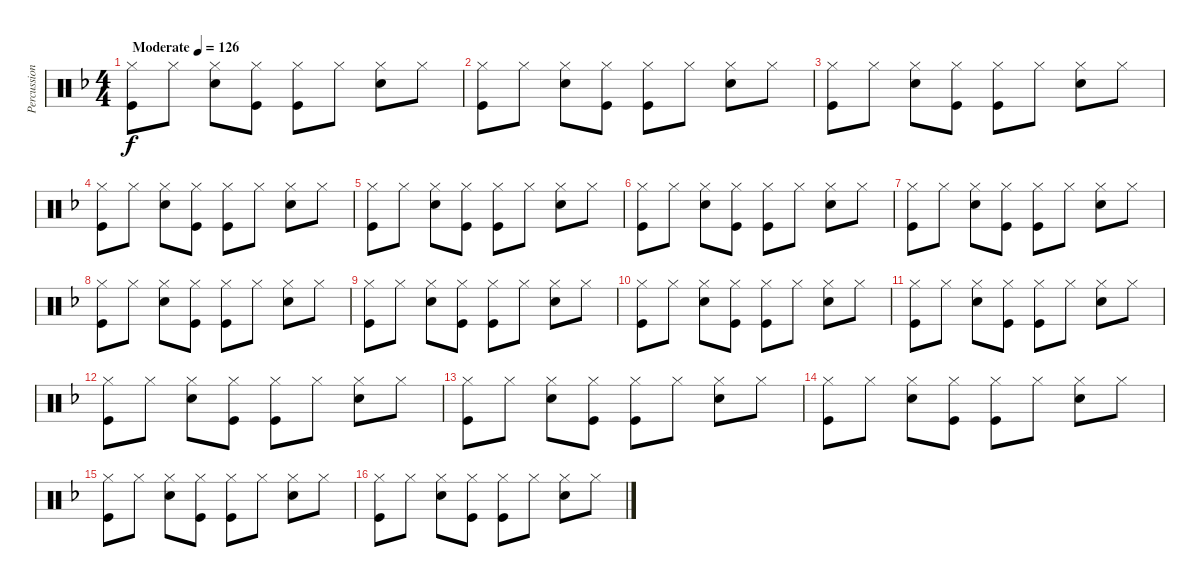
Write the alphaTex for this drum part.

\track ("Percussion" "Percussion") {instrument percussion}
\staff {score}
\articulation defaults
\ts (4 4)
\tempo (126 "Moderate")
\clef neutral
\ks dminor
("Kick (hit)" "Hi-Hat (closed)").8{dy f} "Hi-Hat (closed)".8 ("Hi-Hat (closed)" "Snare (hit) 2").8 ("Hi-Hat (closed)" "Kick (hit)").8 ("Hi-Hat (closed)" "Kick (hit)").8 "Hi-Hat (closed)".8 ("Hi-Hat (closed)" "Snare (hit) 2").8 "Hi-Hat (closed)".8 |
("Kick (hit)" "Hi-Hat (closed)").8 "Hi-Hat (closed)".8 ("Hi-Hat (closed)" "Snare (hit) 2").8 ("Hi-Hat (closed)" "Kick (hit)").8 ("Hi-Hat (closed)" "Kick (hit)").8 "Hi-Hat (closed)".8 ("Hi-Hat (closed)" "Snare (hit) 2").8 "Hi-Hat (closed)".8 |
("Kick (hit)" "Hi-Hat (closed)").8 "Hi-Hat (closed)".8 ("Hi-Hat (closed)" "Snare (hit) 2").8 ("Hi-Hat (closed)" "Kick (hit)").8 ("Hi-Hat (closed)" "Kick (hit)").8 "Hi-Hat (closed)".8 ("Hi-Hat (closed)" "Snare (hit) 2").8 "Hi-Hat (closed)".8 |
("Kick (hit)" "Hi-Hat (closed)").8 "Hi-Hat (closed)".8 ("Hi-Hat (closed)" "Snare (hit) 2").8 ("Hi-Hat (closed)" "Kick (hit)").8 ("Hi-Hat (closed)" "Kick (hit)").8 "Hi-Hat (closed)".8 ("Hi-Hat (closed)" "Snare (hit) 2").8 "Hi-Hat (closed)".8 |
("Kick (hit)" "Hi-Hat (closed)").8 "Hi-Hat (closed)".8 ("Hi-Hat (closed)" "Snare (hit) 2").8 ("Hi-Hat (closed)" "Kick (hit)").8 ("Hi-Hat (closed)" "Kick (hit)").8 "Hi-Hat (closed)".8 ("Hi-Hat (closed)" "Snare (hit) 2").8 "Hi-Hat (closed)".8 |
("Kick (hit)" "Hi-Hat (closed)").8 "Hi-Hat (closed)".8 ("Hi-Hat (closed)" "Snare (hit) 2").8 ("Hi-Hat (closed)" "Kick (hit)").8 ("Hi-Hat (closed)" "Kick (hit)").8 "Hi-Hat (closed)".8 ("Hi-Hat (closed)" "Snare (hit) 2").8 "Hi-Hat (closed)".8 |
("Kick (hit)" "Hi-Hat (closed)").8 "Hi-Hat (closed)".8 ("Hi-Hat (closed)" "Snare (hit) 2").8 ("Hi-Hat (closed)" "Kick (hit)").8 ("Hi-Hat (closed)" "Kick (hit)").8 "Hi-Hat (closed)".8 ("Hi-Hat (closed)" "Snare (hit) 2").8 "Hi-Hat (closed)".8 |
("Kick (hit)" "Hi-Hat (closed)").8 "Hi-Hat (closed)".8 ("Hi-Hat (closed)" "Snare (hit) 2").8 ("Hi-Hat (closed)" "Kick (hit)").8 ("Hi-Hat (closed)" "Kick (hit)").8 "Hi-Hat (closed)".8 ("Hi-Hat (closed)" "Snare (hit) 2").8 "Hi-Hat (closed)".8 |
("Kick (hit)" "Hi-Hat (closed)").8 "Hi-Hat (closed)".8 ("Hi-Hat (closed)" "Snare (hit) 2").8 ("Hi-Hat (closed)" "Kick (hit)").8 ("Hi-Hat (closed)" "Kick (hit)").8 "Hi-Hat (closed)".8 ("Hi-Hat (closed)" "Snare (hit) 2").8 "Hi-Hat (closed)".8 |
("Kick (hit)" "Hi-Hat (closed)").8 "Hi-Hat (closed)".8 ("Hi-Hat (closed)" "Snare (hit) 2").8 ("Hi-Hat (closed)" "Kick (hit)").8 ("Hi-Hat (closed)" "Kick (hit)").8 "Hi-Hat (closed)".8 ("Hi-Hat (closed)" "Snare (hit) 2").8 "Hi-Hat (closed)".8 |
("Kick (hit)" "Hi-Hat (closed)").8 "Hi-Hat (closed)".8 ("Hi-Hat (closed)" "Snare (hit) 2").8 ("Hi-Hat (closed)" "Kick (hit)").8 ("Hi-Hat (closed)" "Kick (hit)").8 "Hi-Hat (closed)".8 ("Hi-Hat (closed)" "Snare (hit) 2").8 "Hi-Hat (closed)".8 |
("Kick (hit)" "Hi-Hat (closed)").8 "Hi-Hat (closed)".8 ("Hi-Hat (closed)" "Snare (hit) 2").8 ("Hi-Hat (closed)" "Kick (hit)").8 ("Hi-Hat (closed)" "Kick (hit)").8 "Hi-Hat (closed)".8 ("Hi-Hat (closed)" "Snare (hit) 2").8 "Hi-Hat (closed)".8 |
("Kick (hit)" "Hi-Hat (closed)").8 "Hi-Hat (closed)".8 ("Hi-Hat (closed)" "Snare (hit) 2").8 ("Hi-Hat (closed)" "Kick (hit)").8 ("Hi-Hat (closed)" "Kick (hit)").8 "Hi-Hat (closed)".8 ("Hi-Hat (closed)" "Snare (hit) 2").8 "Hi-Hat (closed)".8 |
("Kick (hit)" "Hi-Hat (closed)").8 "Hi-Hat (closed)".8 ("Hi-Hat (closed)" "Snare (hit) 2").8 ("Hi-Hat (closed)" "Kick (hit)").8 ("Hi-Hat (closed)" "Kick (hit)").8 "Hi-Hat (closed)".8 ("Hi-Hat (closed)" "Snare (hit) 2").8 "Hi-Hat (closed)".8 |
("Kick (hit)" "Hi-Hat (closed)").8 "Hi-Hat (closed)".8 ("Hi-Hat (closed)" "Snare (hit) 2").8 ("Hi-Hat (closed)" "Kick (hit)").8 ("Hi-Hat (closed)" "Kick (hit)").8 "Hi-Hat (closed)".8 ("Hi-Hat (closed)" "Snare (hit) 2").8 "Hi-Hat (closed)".8 |
("Kick (hit)" "Hi-Hat (closed)").8 "Hi-Hat (closed)".8 ("Hi-Hat (closed)" "Snare (hit) 2").8 ("Hi-Hat (closed)" "Kick (hit)").8 ("Hi-Hat (closed)" "Kick (hit)").8 "Hi-Hat (closed)".8 ("Hi-Hat (closed)" "Snare (hit) 2").8 "Hi-Hat (closed)".8
